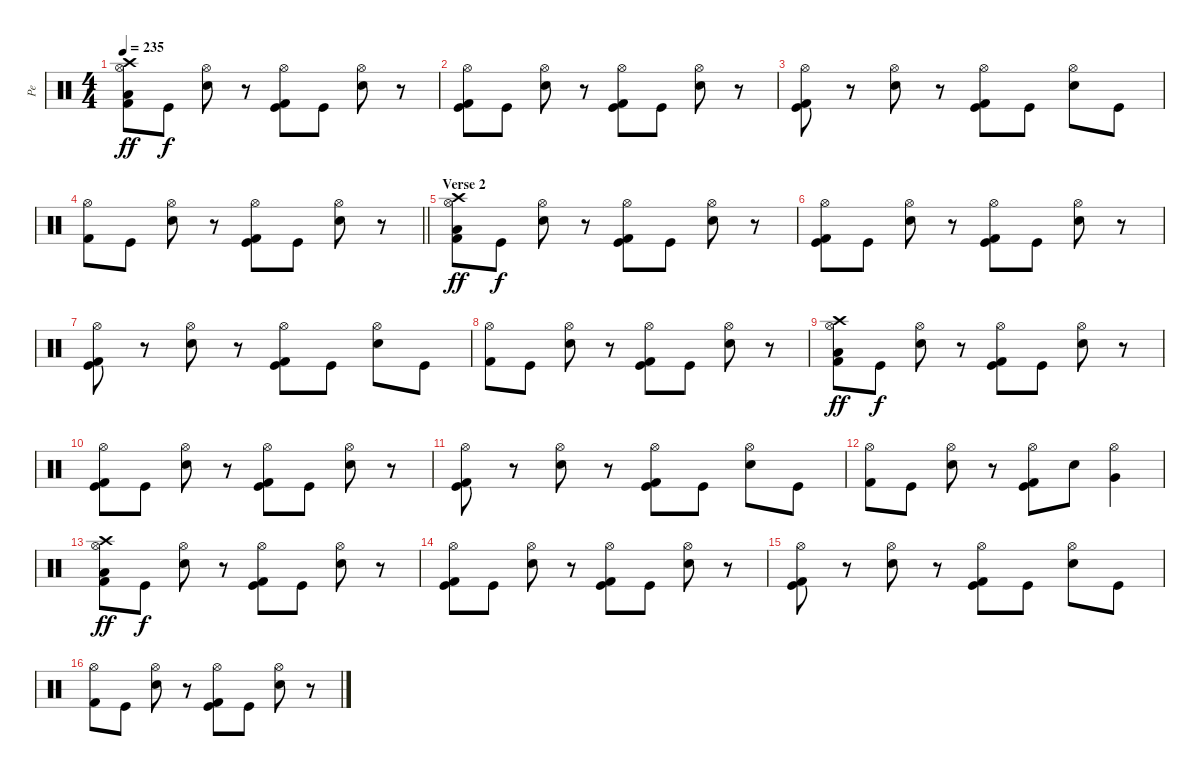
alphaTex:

\track ("Pe" "Pe") {instrument percussion}
\staff {score}
\articulation defaults
\ts (4 4)
\tempo 235
\clef neutral
\ks c
("Low Tom (hit)" "Hi-Hat (open)" "Kick (hit) 2" "Crash high (hit)").8{dy ff} "Kick (hit)".8{dy f} ("Electric Snare (hit)" "Hi-Hat (open)").8 r.8 ("Kick (hit)" "Hi-Hat (open)" "Kick (hit) 2").8 "Kick (hit)".8 ("Electric Snare (hit)" "Hi-Hat (open)").8 r.8 |
("Kick (hit)" "Hi-Hat (open)" "Kick (hit) 2").8 "Kick (hit)".8 ("Electric Snare (hit)" "Hi-Hat (open)").8 r.8 ("Kick (hit)" "Hi-Hat (open)" "Kick (hit) 2").8 "Kick (hit)".8 ("Electric Snare (hit)" "Hi-Hat (open)").8 r.8 |
("Kick (hit)" "Hi-Hat (open)" "Kick (hit) 2").8 r.8 ("Electric Snare (hit)" "Hi-Hat (open)").8 r.8 ("Kick (hit)" "Hi-Hat (open)" "Kick (hit) 2").8 "Kick (hit)".8 ("Electric Snare (hit)" "Hi-Hat (open)").8 "Kick (hit)".8 |
\barLineRight lightlight
("Hi-Hat (open)" "Kick (hit) 2").8 "Kick (hit)".8 ("Electric Snare (hit)" "Hi-Hat (open)").8 r.8 ("Kick (hit)" "Hi-Hat (open)" "Kick (hit) 2").8 "Kick (hit)".8 ("Electric Snare (hit)" "Hi-Hat (open)").8 r.8 |
\section ("" "Verse 2")
("Low Tom (hit)" "Hi-Hat (open)" "Kick (hit) 2" "Crash high (hit)").8{dy ff} "Kick (hit)".8{dy f} ("Electric Snare (hit)" "Hi-Hat (open)").8 r.8 ("Kick (hit)" "Hi-Hat (open)" "Kick (hit) 2").8 "Kick (hit)".8 ("Electric Snare (hit)" "Hi-Hat (open)").8 r.8 |
("Kick (hit)" "Hi-Hat (open)" "Kick (hit) 2").8 "Kick (hit)".8 ("Electric Snare (hit)" "Hi-Hat (open)").8 r.8 ("Kick (hit)" "Hi-Hat (open)" "Kick (hit) 2").8 "Kick (hit)".8 ("Electric Snare (hit)" "Hi-Hat (open)").8 r.8 |
("Kick (hit)" "Hi-Hat (open)" "Kick (hit) 2").8 r.8 ("Electric Snare (hit)" "Hi-Hat (open)").8 r.8 ("Kick (hit)" "Hi-Hat (open)" "Kick (hit) 2").8 "Kick (hit)".8 ("Electric Snare (hit)" "Hi-Hat (open)").8 "Kick (hit)".8 |
("Hi-Hat (open)" "Kick (hit) 2").8 "Kick (hit)".8 ("Electric Snare (hit)" "Hi-Hat (open)").8 r.8 ("Kick (hit)" "Hi-Hat (open)" "Kick (hit) 2").8 "Kick (hit)".8 ("Electric Snare (hit)" "Hi-Hat (open)").8 r.8 |
("Low Tom (hit)" "Hi-Hat (open)" "Kick (hit) 2" "Crash high (hit)").8{dy ff} "Kick (hit)".8{dy f} ("Electric Snare (hit)" "Hi-Hat (open)").8 r.8 ("Kick (hit)" "Hi-Hat (open)" "Kick (hit) 2").8 "Kick (hit)".8 ("Electric Snare (hit)" "Hi-Hat (open)").8 r.8 |
("Kick (hit)" "Hi-Hat (open)" "Kick (hit) 2").8 "Kick (hit)".8 ("Electric Snare (hit)" "Hi-Hat (open)").8 r.8 ("Kick (hit)" "Hi-Hat (open)" "Kick (hit) 2").8 "Kick (hit)".8 ("Electric Snare (hit)" "Hi-Hat (open)").8 r.8 |
("Kick (hit)" "Hi-Hat (open)" "Kick (hit) 2").8 r.8 ("Electric Snare (hit)" "Hi-Hat (open)").8 r.8 ("Kick (hit)" "Hi-Hat (open)" "Kick (hit) 2").8 "Kick (hit)".8 ("Electric Snare (hit)" "Hi-Hat (open)").8 "Kick (hit)".8 |
("Hi-Hat (open)" "Kick (hit) 2").8 "Kick (hit)".8 ("Electric Snare (hit)" "Hi-Hat (open)").8 r.8 ("Kick (hit)" "Hi-Hat (open)" "Kick (hit) 2").8 "Electric Snare (hit)".8 ("Very Low Tom (hit)" "Hi-Hat (open)").4 |
("Low Tom (hit)" "Hi-Hat (open)" "Kick (hit) 2" "Crash high (hit)").8{dy ff} "Kick (hit)".8{dy f} ("Electric Snare (hit)" "Hi-Hat (open)").8 r.8 ("Kick (hit)" "Hi-Hat (open)" "Kick (hit) 2").8 "Kick (hit)".8 ("Electric Snare (hit)" "Hi-Hat (open)").8 r.8 |
("Kick (hit)" "Hi-Hat (open)" "Kick (hit) 2").8 "Kick (hit)".8 ("Electric Snare (hit)" "Hi-Hat (open)").8 r.8 ("Kick (hit)" "Hi-Hat (open)" "Kick (hit) 2").8 "Kick (hit)".8 ("Electric Snare (hit)" "Hi-Hat (open)").8 r.8 |
("Kick (hit)" "Hi-Hat (open)" "Kick (hit) 2").8 r.8 ("Electric Snare (hit)" "Hi-Hat (open)").8 r.8 ("Kick (hit)" "Hi-Hat (open)" "Kick (hit) 2").8 "Kick (hit)".8 ("Electric Snare (hit)" "Hi-Hat (open)").8 "Kick (hit)".8 |
("Hi-Hat (open)" "Kick (hit) 2").8 "Kick (hit)".8 ("Electric Snare (hit)" "Hi-Hat (open)").8 r.8 ("Kick (hit)" "Hi-Hat (open)" "Kick (hit) 2").8 "Kick (hit)".8 ("Electric Snare (hit)" "Hi-Hat (open)").8 r.8
